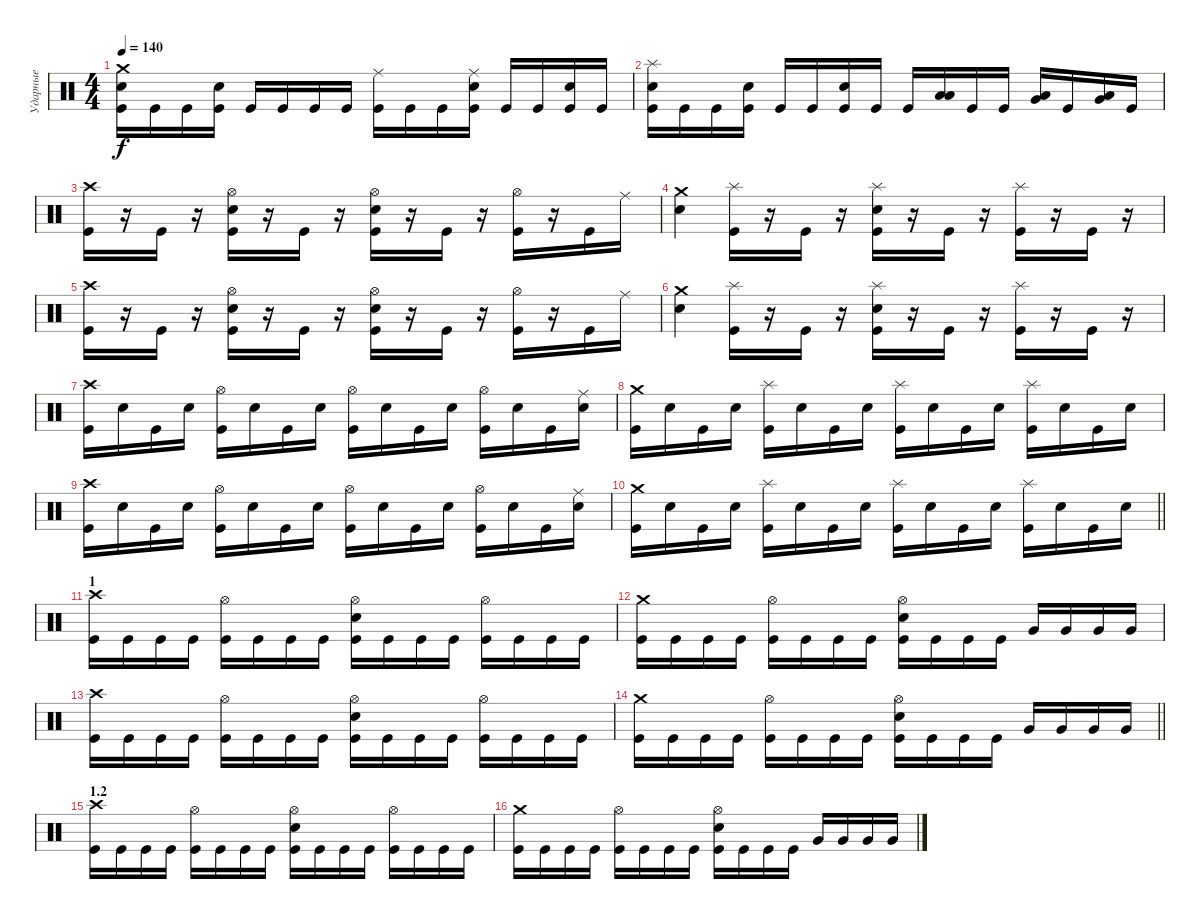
\track ("Ударные" "Ударные") {instrument percussion}
\staff {score}
\articulation defaults
\ts (4 4)
\tempo 140
\clef neutral
\ks c
("Crash medium (hit)" "Electric Snare (hit)" "Kick (hit)").16{dy f} "Kick (hit)".16 "Kick (hit)".16 ("Electric Snare (hit)" "Kick (hit)").16 "Kick (hit)".16 "Kick (hit)".16 "Kick (hit)".16 "Kick (hit)".16 ("Ride (middle)" "Kick (hit)").16 "Kick (hit)".16 "Kick (hit)".16 ("Ride (middle)" "Electric Snare (hit)" "Kick (hit)").16 "Kick (hit)".16 "Kick (hit)".16 ("Electric Snare (hit)" "Kick (hit)").16 "Kick (hit)".16 |
("Splash (hit)" "Electric Snare (hit)" "Kick (hit)").16 "Kick (hit)".16 "Kick (hit)".16 ("Electric Snare (hit)" "Kick (hit)").16 "Kick (hit)".16 "Kick (hit)".16 ("Electric Snare (hit)" "Kick (hit)").16 "Kick (hit)".16 "Kick (hit)".16 ("Low Tom (hit)" "Low Floor Tom (hit)").16 "Kick (hit)".16 "Kick (hit)".16 ("Very Low Tom (hit)" "Low Floor Tom (hit)").16 "Kick (hit)".16 ("Very Low Tom (hit)" "Low Floor Tom (hit)").16 "Kick (hit)".16 |
("Crash high (hit)" "Kick (hit)").16 r.16 "Kick (hit)".16 r.16 ("Hi-Hat (open)" "Electric Snare (hit)" "Kick (hit)").16 r.16 "Kick (hit)".16 r.16 ("Hi-Hat (open)" "Electric Snare (hit)" "Kick (hit)").16 r.16 "Kick (hit)".16 r.16 ("Hi-Hat (open)" "Kick (hit)").16 r.16 "Kick (hit)".16 "Ride (middle)".16 |
("Crash medium (hit)" "Electric Snare (hit)").4 ("Splash (hit)" "Kick (hit)").16 r.16 "Kick (hit)".16 r.16 ("Splash (hit)" "Electric Snare (hit)" "Kick (hit)").16 r.16 "Kick (hit)".16 r.16 ("Splash (hit)" "Kick (hit)").16 r.16 "Kick (hit)".16 r.16 |
("Crash high (hit)" "Kick (hit)").16 r.16 "Kick (hit)".16 r.16 ("Hi-Hat (open)" "Electric Snare (hit)" "Kick (hit)").16 r.16 "Kick (hit)".16 r.16 ("Hi-Hat (open)" "Electric Snare (hit)" "Kick (hit)").16 r.16 "Kick (hit)".16 r.16 ("Hi-Hat (open)" "Kick (hit)").16 r.16 "Kick (hit)".16 "Ride (middle)".16 |
("Crash medium (hit)" "Electric Snare (hit)").4 ("Splash (hit)" "Kick (hit)").16 r.16 "Kick (hit)".16 r.16 ("Splash (hit)" "Electric Snare (hit)" "Kick (hit)").16 r.16 "Kick (hit)".16 r.16 ("Splash (hit)" "Kick (hit)").16 r.16 "Kick (hit)".16 r.16 |
("Crash high (hit)" "Kick (hit)").16 "Electric Snare (hit)".16 "Kick (hit)".16 "Electric Snare (hit)".16 ("Hi-Hat (open)" "Kick (hit)").16 "Electric Snare (hit)".16 "Kick (hit)".16 "Electric Snare (hit)".16 ("Hi-Hat (open)" "Kick (hit)").16 "Electric Snare (hit)".16 "Kick (hit)".16 "Electric Snare (hit)".16 ("Hi-Hat (open)" "Kick (hit)").16 "Electric Snare (hit)".16 "Kick (hit)".16 ("Ride (middle)" "Electric Snare (hit)").16 |
("Crash medium (hit)" "Kick (hit)").16 "Electric Snare (hit)".16 "Kick (hit)".16 "Electric Snare (hit)".16 ("Splash (hit)" "Kick (hit)").16 "Electric Snare (hit)".16 "Kick (hit)".16 "Electric Snare (hit)".16 ("Splash (hit)" "Kick (hit)").16 "Electric Snare (hit)".16 "Kick (hit)".16 "Electric Snare (hit)".16 ("Splash (hit)" "Kick (hit)").16 "Electric Snare (hit)".16 "Kick (hit)".16 "Electric Snare (hit)".16 |
("Crash high (hit)" "Kick (hit)").16 "Electric Snare (hit)".16 "Kick (hit)".16 "Electric Snare (hit)".16 ("Hi-Hat (open)" "Kick (hit)").16 "Electric Snare (hit)".16 "Kick (hit)".16 "Electric Snare (hit)".16 ("Hi-Hat (open)" "Kick (hit)").16 "Electric Snare (hit)".16 "Kick (hit)".16 "Electric Snare (hit)".16 ("Hi-Hat (open)" "Kick (hit)").16 "Electric Snare (hit)".16 "Kick (hit)".16 ("Ride (middle)" "Electric Snare (hit)").16 |
\barLineRight lightlight
("Crash medium (hit)" "Kick (hit)").16 "Electric Snare (hit)".16 "Kick (hit)".16 "Electric Snare (hit)".16 ("Splash (hit)" "Kick (hit)").16 "Electric Snare (hit)".16 "Kick (hit)".16 "Electric Snare (hit)".16 ("Splash (hit)" "Kick (hit)").16 "Electric Snare (hit)".16 "Kick (hit)".16 "Electric Snare (hit)".16 ("Splash (hit)" "Kick (hit)").16 "Electric Snare (hit)".16 "Kick (hit)".16 "Electric Snare (hit)".16 |
\section ("" "1")
("Crash high (hit)" "Kick (hit)").16 "Kick (hit)".16 "Kick (hit)".16 "Kick (hit)".16 ("Hi-Hat (open)" "Kick (hit)").16 "Kick (hit)".16 "Kick (hit)".16 "Kick (hit)".16 ("Hi-Hat (open)" "Electric Snare (hit)" "Kick (hit)").16 "Kick (hit)".16 "Kick (hit)".16 "Kick (hit)".16 ("Hi-Hat (open)" "Kick (hit)").16 "Kick (hit)".16 "Kick (hit)".16 "Kick (hit)".16 |
("Crash medium (hit)" "Kick (hit)").16 "Kick (hit)".16 "Kick (hit)".16 "Kick (hit)".16 ("Hi-Hat (open)" "Kick (hit)").16 "Kick (hit)".16 "Kick (hit)".16 "Kick (hit)".16 ("Hi-Hat (open)" "Electric Snare (hit)" "Kick (hit)").16 "Kick (hit)".16 "Kick (hit)".16 "Kick (hit)".16 "Very Low Tom (hit)".16 "Very Low Tom (hit)".16 "Very Low Tom (hit)".16 "Very Low Tom (hit)".16 |
("Crash high (hit)" "Kick (hit)").16 "Kick (hit)".16 "Kick (hit)".16 "Kick (hit)".16 ("Hi-Hat (open)" "Kick (hit)").16 "Kick (hit)".16 "Kick (hit)".16 "Kick (hit)".16 ("Hi-Hat (open)" "Electric Snare (hit)" "Kick (hit)").16 "Kick (hit)".16 "Kick (hit)".16 "Kick (hit)".16 ("Hi-Hat (open)" "Kick (hit)").16 "Kick (hit)".16 "Kick (hit)".16 "Kick (hit)".16 |
\barLineRight lightlight
("Crash medium (hit)" "Kick (hit)").16 "Kick (hit)".16 "Kick (hit)".16 "Kick (hit)".16 ("Hi-Hat (open)" "Kick (hit)").16 "Kick (hit)".16 "Kick (hit)".16 "Kick (hit)".16 ("Hi-Hat (open)" "Electric Snare (hit)" "Kick (hit)").16 "Kick (hit)".16 "Kick (hit)".16 "Kick (hit)".16 "Very Low Tom (hit)".16 "Very Low Tom (hit)".16 "Very Low Tom (hit)".16 "Very Low Tom (hit)".16 |
\section ("" "1.2")
("Crash high (hit)" "Kick (hit)").16 "Kick (hit)".16 "Kick (hit)".16 "Kick (hit)".16 ("Hi-Hat (open)" "Kick (hit)").16 "Kick (hit)".16 "Kick (hit)".16 "Kick (hit)".16 ("Hi-Hat (open)" "Electric Snare (hit)" "Kick (hit)").16 "Kick (hit)".16 "Kick (hit)".16 "Kick (hit)".16 ("Hi-Hat (open)" "Kick (hit)").16 "Kick (hit)".16 "Kick (hit)".16 "Kick (hit)".16 |
("Crash medium (hit)" "Kick (hit)").16 "Kick (hit)".16 "Kick (hit)".16 "Kick (hit)".16 ("Hi-Hat (open)" "Kick (hit)").16 "Kick (hit)".16 "Kick (hit)".16 "Kick (hit)".16 ("Hi-Hat (open)" "Electric Snare (hit)" "Kick (hit)").16 "Kick (hit)".16 "Kick (hit)".16 "Kick (hit)".16 "Very Low Tom (hit)".16 "Very Low Tom (hit)".16 "Very Low Tom (hit)".16 "Very Low Tom (hit)".16
